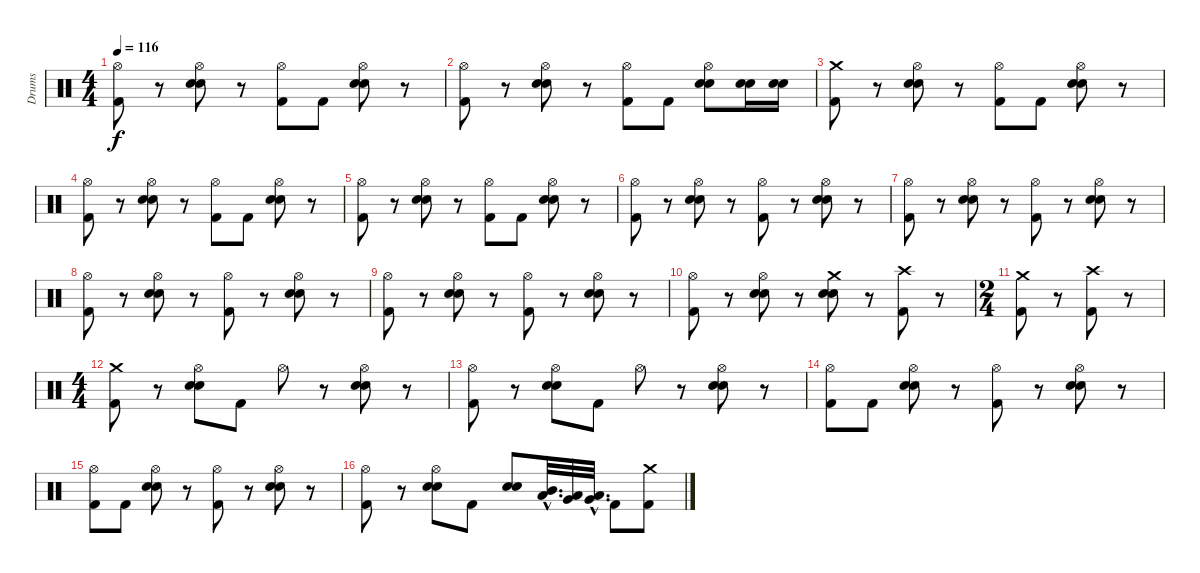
\track ("Drums" "Drums") {instrument percussion}
\staff {score}
\articulation defaults
\ts (4 4)
\tempo 116
\clef neutral
\ks c
("Kick (hit) 2" "Hi-Hat (open)").8{dy f} r.8 ("Hi-Hat (open)" "Snare (hit) 2" "Electric Snare (hit)").8 r.8 ("Hi-Hat (open)" "Kick (hit) 2").8 "Kick (hit) 2".8 ("Hi-Hat (open)" "Snare (hit) 2" "Electric Snare (hit)").8 r.8 |
("Kick (hit) 2" "Hi-Hat (open)").8 r.8 ("Hi-Hat (open)" "Snare (hit) 2" "Electric Snare (hit)").8 r.8 ("Hi-Hat (open)" "Kick (hit) 2").8 "Kick (hit) 2".8 ("Hi-Hat (open)" "Snare (hit) 2" "Electric Snare (hit)").8 ("Electric Snare (hit)" "Snare (hit) 2").16 ("Electric Snare (hit)" "Snare (hit) 2").16 |
("Kick (hit) 2" "Crash medium (hit)").8 r.8 ("Hi-Hat (open)" "Snare (hit) 2" "Electric Snare (hit)").8 r.8 ("Hi-Hat (open)" "Kick (hit) 2").8 "Kick (hit) 2".8 ("Hi-Hat (open)" "Snare (hit) 2" "Electric Snare (hit)").8 r.8 |
("Kick (hit) 2" "Hi-Hat (open)").8 r.8 ("Hi-Hat (open)" "Snare (hit) 2" "Electric Snare (hit)").8 r.8 ("Hi-Hat (open)" "Kick (hit) 2").8 "Kick (hit) 2".8 ("Hi-Hat (open)" "Snare (hit) 2" "Electric Snare (hit)").8 r.8 |
("Kick (hit) 2" "Hi-Hat (open)").8 r.8 ("Hi-Hat (open)" "Snare (hit) 2" "Electric Snare (hit)").8 r.8 ("Hi-Hat (open)" "Kick (hit) 2").8 "Kick (hit) 2".8 ("Hi-Hat (open)" "Snare (hit) 2" "Electric Snare (hit)").8 r.8 |
("Kick (hit) 2" "Hi-Hat (open)").8 r.8 ("Hi-Hat (open)" "Snare (hit) 2" "Electric Snare (hit)").8 r.8 ("Hi-Hat (open)" "Kick (hit) 2").8 r.8 ("Hi-Hat (open)" "Snare (hit) 2" "Electric Snare (hit)").8 r.8 |
("Kick (hit) 2" "Hi-Hat (open)").8 r.8 ("Hi-Hat (open)" "Snare (hit) 2" "Electric Snare (hit)").8 r.8 ("Hi-Hat (open)" "Kick (hit) 2").8 r.8 ("Hi-Hat (open)" "Snare (hit) 2" "Electric Snare (hit)").8 r.8 |
("Kick (hit) 2" "Hi-Hat (open)").8 r.8 ("Hi-Hat (open)" "Snare (hit) 2" "Electric Snare (hit)").8 r.8 ("Hi-Hat (open)" "Kick (hit) 2").8 r.8 ("Hi-Hat (open)" "Snare (hit) 2" "Electric Snare (hit)").8 r.8 |
("Kick (hit) 2" "Hi-Hat (open)").8 r.8 ("Hi-Hat (open)" "Snare (hit) 2" "Electric Snare (hit)").8 r.8 ("Hi-Hat (open)" "Kick (hit) 2").8 r.8 ("Hi-Hat (open)" "Snare (hit) 2" "Electric Snare (hit)").8 r.8 |
("Hi-Hat (open)" "Kick (hit) 2").8 r.8 ("Hi-Hat (open)" "Electric Snare (hit)" "Snare (hit) 2").8 r.8 ("Crash medium (hit)" "Electric Snare (hit)" "Snare (hit) 2").8 r.8 ("Crash high (hit)" "Kick (hit) 2").8 r.8 |
\ts (2 4)
("Crash medium (hit)" "Kick (hit) 2").8 r.8 ("Kick (hit) 2" "Crash high (hit)").8 r.8 |
\ts (4 4)
("Crash medium (hit)" "Kick (hit) 2").8 r.8 ("Hi-Hat (open)" "Snare (hit) 2" "Electric Snare (hit)").8 "Kick (hit) 2".8 "Hi-Hat (open)".8 r.8 ("Hi-Hat (open)" "Snare (hit) 2" "Electric Snare (hit)").8 r.8 |
("Hi-Hat (open)" "Kick (hit) 2").8 r.8 ("Hi-Hat (open)" "Snare (hit) 2" "Electric Snare (hit)").8 "Kick (hit) 2".8 "Hi-Hat (open)".8 r.8 ("Hi-Hat (open)" "Snare (hit) 2" "Electric Snare (hit)").8 r.8 |
("Hi-Hat (open)" "Kick (hit) 2").8 "Kick (hit) 2".8 ("Hi-Hat (open)" "Snare (hit) 2" "Electric Snare (hit)").8 r.8 ("Kick (hit) 2" "Hi-Hat (open)").8 r.8 ("Hi-Hat (open)" "Snare (hit) 2" "Electric Snare (hit)").8 r.8 |
("Hi-Hat (open)" "Kick (hit) 2").8 "Kick (hit) 2".8 ("Hi-Hat (open)" "Snare (hit) 2" "Electric Snare (hit)").8 r.8 ("Kick (hit) 2" "Hi-Hat (open)").8 r.8 ("Hi-Hat (open)" "Snare (hit) 2" "Electric Snare (hit)").8 r.8 |
("Hi-Hat (open)" "Kick (hit) 2").8 r.8 ("Hi-Hat (open)" "Snare (hit) 2" "Electric Snare (hit)").8 "Kick (hit) 2".8 ("Electric Snare (hit)" "Snare (hit) 2").8 ("Mid Tom (hit)"{hac} "Low Tom (hit)"{hac}).32{d} ("Low Tom (hit)" "Very Low Tom (hit)").32 ("Low Tom (hit)"{hac} "Very Low Tom (hit)"{hac}).32{d} "Kick (hit) 2".8 ("Crash medium (hit)" "Kick (hit) 2").8
